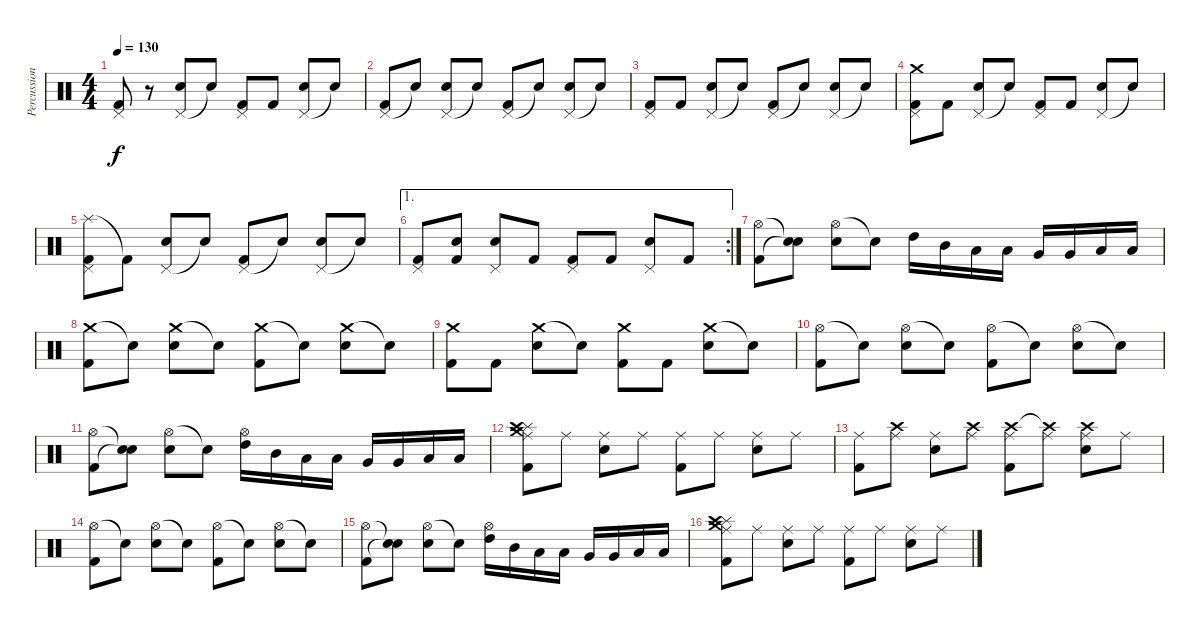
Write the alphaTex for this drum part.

\track ("Percussion" "Percussion") {instrument percussion}
\staff {score}
\articulation defaults
\ts (4 4)
\tempo 130
\clef neutral
\ks c
("Pedal Hi-Hat (hit)" "Kick (hit) 2").8{dy f} r.8 ("Pedal Hi-Hat (hit)" "Electric Snare (hit)").8 "Snare (hit)"{t}.8 ("Pedal Hi-Hat (hit)" "Kick (hit) 2").8 "Kick (hit) 2".8 ("Pedal Hi-Hat (hit)" "Electric Snare (hit)").8 "Snare (hit)"{t}.8 |
("Pedal Hi-Hat (hit)" "Kick (hit) 2").8 "Snare (hit)"{t}.8 ("Pedal Hi-Hat (hit)" "Electric Snare (hit)").8 "Snare (hit)"{t}.8 ("Pedal Hi-Hat (hit)" "Kick (hit) 2").8 "Snare (hit)"{t}.8 ("Pedal Hi-Hat (hit)" "Electric Snare (hit)").8 "Snare (hit)"{t}.8 |
("Pedal Hi-Hat (hit)" "Kick (hit) 2").8 "Kick (hit) 2".8 ("Pedal Hi-Hat (hit)" "Electric Snare (hit)").8 "Snare (hit)"{t}.8 ("Pedal Hi-Hat (hit)" "Kick (hit) 2").8 "Snare (hit)"{t}.8 ("Pedal Hi-Hat (hit)" "Electric Snare (hit)").8 "Snare (hit)"{t}.8 |
("Crash medium (hit)" "Pedal Hi-Hat (hit)" "Kick (hit) 2").8 "Kick (hit) 2".8 ("Pedal Hi-Hat (hit)" "Electric Snare (hit)").8 "Snare (hit)"{t}.8 ("Pedal Hi-Hat (hit)" "Kick (hit) 2").8 "Kick (hit) 2".8 ("Pedal Hi-Hat (hit)" "Electric Snare (hit)").8 "Snare (hit)"{t}.8 |
("Splash (hit)" "Pedal Hi-Hat (hit)" "Kick (hit) 2").8 "Kick (hit) 2"{t}.8 ("Pedal Hi-Hat (hit)" "Electric Snare (hit)").8 "Snare (hit)"{t}.8 ("Pedal Hi-Hat (hit)" "Kick (hit) 2").8 "Snare (hit)"{t}.8 ("Pedal Hi-Hat (hit)" "Electric Snare (hit)").8 "Snare (hit)"{t}.8 |
\ae 1
\rc 2
("Pedal Hi-Hat (hit)" "Kick (hit) 2").8 ("Snare (hit)" "Kick (hit) 2").8 ("Pedal Hi-Hat (hit)" "Electric Snare (hit)").8 "Kick (hit) 2".8 ("Pedal Hi-Hat (hit)" "Kick (hit) 2").8 "Kick (hit) 2".8 ("Pedal Hi-Hat (hit)" "Electric Snare (hit)").8 "Kick (hit) 2".8 |
("Hi-Hat (open)" "Kick (hit) 2").8 ("Snare (hit)"{t} "Snare (hit)"{t}).8 ("Hi-Hat (open)" "Electric Snare (hit)").8 "Snare (hit)"{t}.8 "High Tom (hit)".16 "Mid Tom (hit)".16 "Low Tom (hit)".16 "Low Tom (hit)".16 "Very Low Tom (hit)".16 "Very Low Tom (hit)".16 "Low Floor Tom (hit)".16 "Low Floor Tom (hit)".16 |
("Crash medium (hit)" "Kick (hit) 2").8 "Snare (hit)"{t}.8 ("Crash medium (hit)" "Electric Snare (hit)").8 "Snare (hit)"{t}.8 ("Crash medium (hit)" "Kick (hit) 2").8 "Snare (hit)"{t}.8 ("Crash medium (hit)" "Electric Snare (hit)").8 "Snare (hit)"{t}.8 |
("Crash medium (hit)" "Kick (hit) 2").8 "Kick (hit) 2".8 ("Crash medium (hit)" "Electric Snare (hit)").8 "Snare (hit)"{t}.8 ("Crash medium (hit)" "Kick (hit) 2").8 "Kick (hit) 2".8 ("Crash medium (hit)" "Electric Snare (hit)").8 "Snare (hit)"{t}.8 |
("Hi-Hat (open)" "Kick (hit) 2").8 "Snare (hit)"{t}.8 ("Hi-Hat (open)" "Electric Snare (hit)").8 "Snare (hit)"{t}.8 ("Hi-Hat (open)" "Kick (hit) 2").8 "Snare (hit)"{t}.8 ("Hi-Hat (open)" "Electric Snare (hit)").8 "Snare (hit)"{t}.8 |
("Hi-Hat (open)" "Kick (hit) 2").8 ("Snare (hit)"{t} "Snare (hit)"{t}).8 ("Hi-Hat (open)" "Electric Snare (hit)").8 "Snare (hit)"{t}.8 ("Hi-Hat (open)" "High Tom (hit)").16 "Mid Tom (hit)".16 "Low Tom (hit)".16 "Low Tom (hit)".16 "Very Low Tom (hit)".16 "Very Low Tom (hit)".16 "Low Floor Tom (hit)".16 "Low Floor Tom (hit)".16 |
("Splash (hit)" "Crash high (hit)" "Crash medium (hit)" "Ride (middle)" "Kick (hit) 2").8 "Ride (middle)".8 ("Ride (middle)" "Electric Snare (hit)").8 "Ride (middle)".8 ("Ride (middle)" "Kick (hit) 2").8 "Ride (middle)".8 ("Ride (middle)" "Electric Snare (hit)").8 "Ride (middle)".8 |
("Ride (middle)" "Kick (hit) 2").8 ("Crash high (hit)" "Ride (middle)").8 ("Ride (middle)" "Electric Snare (hit)").8 ("Crash high (hit)" "Ride (middle)").8 ("Crash high (hit)" "Ride (middle)" "Kick (hit) 2").8 ("Crash high (hit)"{t} "Ride (middle)").8 ("Crash high (hit)" "Ride (middle)" "Electric Snare (hit)").8 "Ride (middle)".8 |
("Hi-Hat (open)" "Kick (hit) 2").8 "Snare (hit)"{t}.8 ("Hi-Hat (open)" "Electric Snare (hit)").8 "Snare (hit)"{t}.8 ("Hi-Hat (open)" "Kick (hit) 2").8 "Snare (hit)"{t}.8 ("Hi-Hat (open)" "Electric Snare (hit)").8 "Snare (hit)"{t}.8 |
("Hi-Hat (open)" "Kick (hit) 2").8 ("Snare (hit)"{t} "Snare (hit)"{t}).8 ("Hi-Hat (open)" "Electric Snare (hit)").8 "Snare (hit)"{t}.8 ("Hi-Hat (open)" "High Tom (hit)").16 "Mid Tom (hit)".16 "Low Tom (hit)".16 "Low Tom (hit)".16 "Very Low Tom (hit)".16 "Very Low Tom (hit)".16 "Low Floor Tom (hit)".16 "Low Floor Tom (hit)".16 |
("Splash (hit)" "Crash high (hit)" "Crash medium (hit)" "Ride (middle)" "Kick (hit) 2").8 "Ride (middle)".8 ("Ride (middle)" "Electric Snare (hit)").8 "Ride (middle)".8 ("Ride (middle)" "Kick (hit) 2").8 "Ride (middle)".8 ("Ride (middle)" "Electric Snare (hit)").8 "Ride (middle)".8
